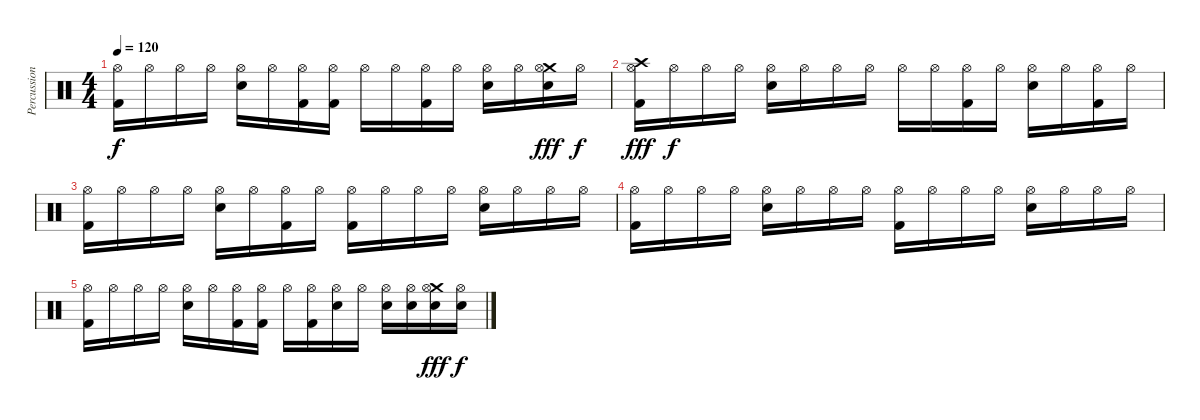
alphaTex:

\track ("Percussion" "Percussion") {instrument percussion}
\staff {score}
\articulation defaults
\ts (4 4)
\tempo 120
\clef neutral
\ks c
("Hi-Hat (open)" "Kick (hit) 2").16{dy f} "Hi-Hat (open)".16 "Hi-Hat (open)".16 "Hi-Hat (open)".16 ("Hi-Hat (open)" "Electric Snare (hit)").16 "Hi-Hat (open)".16 ("Hi-Hat (open)" "Kick (hit) 2").16 ("Hi-Hat (open)" "Kick (hit) 2").16 "Hi-Hat (open)".16 "Hi-Hat (open)".16 ("Hi-Hat (open)" "Kick (hit) 2").16 "Hi-Hat (open)".16 ("Hi-Hat (open)" "Electric Snare (hit)").16 "Hi-Hat (open)".16 ("Crash medium (hit)" "Hi-Hat (open)" "Electric Snare (hit)").16{dy fff} "Hi-Hat (open)".16{dy f} |
("Crash high (hit)" "Hi-Hat (open)" "Kick (hit) 2").16{dy fff volume 0} "Hi-Hat (open)".16{dy f} "Hi-Hat (open)".16 "Hi-Hat (open)".16 ("Hi-Hat (open)" "Electric Snare (hit)").16 "Hi-Hat (open)".16 "Hi-Hat (open)".16 "Hi-Hat (open)".16 "Hi-Hat (open)".16 "Hi-Hat (open)".16 ("Hi-Hat (open)" "Kick (hit) 2").16 "Hi-Hat (open)".16 ("Hi-Hat (open)" "Electric Snare (hit)").16 "Hi-Hat (open)".16 ("Hi-Hat (open)" "Kick (hit) 2").16 "Hi-Hat (open)".16 |
("Hi-Hat (open)" "Kick (hit) 2").16 "Hi-Hat (open)".16 "Hi-Hat (open)".16 "Hi-Hat (open)".16 ("Hi-Hat (open)" "Electric Snare (hit)").16 "Hi-Hat (open)".16 ("Hi-Hat (open)" "Kick (hit) 2").16 "Hi-Hat (open)".16 ("Hi-Hat (open)" "Kick (hit) 2").16 "Hi-Hat (open)".16 "Hi-Hat (open)".16 "Hi-Hat (open)".16 ("Hi-Hat (open)" "Electric Snare (hit)").16 "Hi-Hat (open)".16 "Hi-Hat (open)".16 "Hi-Hat (open)".16 |
("Hi-Hat (open)" "Kick (hit) 2").16 "Hi-Hat (open)".16 "Hi-Hat (open)".16 "Hi-Hat (open)".16 ("Hi-Hat (open)" "Electric Snare (hit)").16 "Hi-Hat (open)".16 "Hi-Hat (open)".16 "Hi-Hat (open)".16 ("Hi-Hat (open)" "Kick (hit) 2").16 "Hi-Hat (open)".16 "Hi-Hat (open)".16 "Hi-Hat (open)".16 ("Hi-Hat (open)" "Electric Snare (hit)").16 "Hi-Hat (open)".16 "Hi-Hat (open)".16 "Hi-Hat (open)".16 |
("Hi-Hat (open)" "Kick (hit) 2").16 "Hi-Hat (open)".16 "Hi-Hat (open)".16 "Hi-Hat (open)".16 ("Hi-Hat (open)" "Electric Snare (hit)").16 "Hi-Hat (open)".16 ("Hi-Hat (open)" "Kick (hit) 2").16 ("Hi-Hat (open)" "Kick (hit) 2").16 "Hi-Hat (open)".16 ("Hi-Hat (open)" "Kick (hit) 2").16 ("Hi-Hat (open)" "Electric Snare (hit)").16 "Hi-Hat (open)".16 ("Hi-Hat (open)" "Electric Snare (hit)").16 ("Hi-Hat (open)" "Electric Snare (hit)").16 ("Crash medium (hit)" "Hi-Hat (open)" "Electric Snare (hit)").16{dy fff} ("Hi-Hat (open)" "Electric Snare (hit)").16{dy f}
